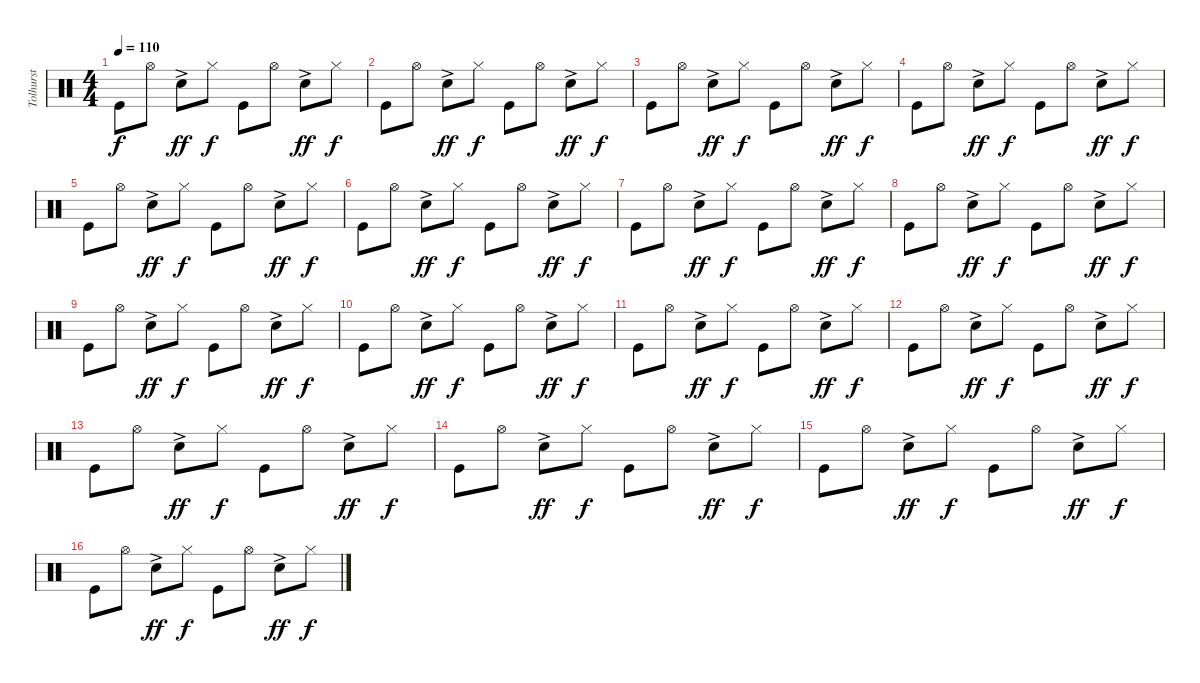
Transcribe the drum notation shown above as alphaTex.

\track ("Tolhurst" "Tolhurst") {instrument percussion}
\staff {score}
\articulation defaults
\ts (4 4)
\tempo 110
\clef neutral
\ks c "Kick (hit)".8{dy f} "Hi-Hat (open)".8 "Electric Snare (hit)"{ac}.8{dy ff} "Hi-Hat (closed)".8{dy f} "Kick (hit)".8 "Hi-Hat (open)".8 "Electric Snare (hit)"{ac}.8{dy ff} "Hi-Hat (closed)".8{dy f}
|
"Kick (hit)".8 "Hi-Hat (open)".8 "Electric Snare (hit)"{ac}.8{dy ff} "Hi-Hat (closed)".8{dy f} "Kick (hit)".8 "Hi-Hat (open)".8 "Electric Snare (hit)"{ac}.8{dy ff} "Hi-Hat (closed)".8{dy f} |
"Kick (hit)".8 "Hi-Hat (open)".8 "Electric Snare (hit)"{ac}.8{dy ff} "Hi-Hat (closed)".8{dy f} "Kick (hit)".8 "Hi-Hat (open)".8 "Electric Snare (hit)"{ac}.8{dy ff} "Hi-Hat (closed)".8{dy f} |
"Kick (hit)".8 "Hi-Hat (open)".8 "Electric Snare (hit)"{ac}.8{dy ff} "Hi-Hat (closed)".8{dy f} "Kick (hit)".8 "Hi-Hat (open)".8 "Electric Snare (hit)"{ac}.8{dy ff} "Hi-Hat (closed)".8{dy f} |
"Kick (hit)".8 "Hi-Hat (open)".8 "Electric Snare (hit)"{ac}.8{dy ff} "Hi-Hat (closed)".8{dy f} "Kick (hit)".8 "Hi-Hat (open)".8 "Electric Snare (hit)"{ac}.8{dy ff} "Hi-Hat (closed)".8{dy f} |
"Kick (hit)".8 "Hi-Hat (open)".8 "Electric Snare (hit)"{ac}.8{dy ff} "Hi-Hat (closed)".8{dy f} "Kick (hit)".8 "Hi-Hat (open)".8 "Electric Snare (hit)"{ac}.8{dy ff} "Hi-Hat (closed)".8{dy f} |
"Kick (hit)".8 "Hi-Hat (open)".8 "Electric Snare (hit)"{ac}.8{dy ff} "Hi-Hat (closed)".8{dy f} "Kick (hit)".8 "Hi-Hat (open)".8 "Electric Snare (hit)"{ac}.8{dy ff} "Hi-Hat (closed)".8{dy f} |
"Kick (hit)".8 "Hi-Hat (open)".8 "Electric Snare (hit)"{ac}.8{dy ff} "Hi-Hat (closed)".8{dy f} "Kick (hit)".8 "Hi-Hat (open)".8 "Electric Snare (hit)"{ac}.8{dy ff} "Hi-Hat (closed)".8{dy f} |
"Kick (hit)".8 "Hi-Hat (open)".8 "Electric Snare (hit)"{ac}.8{dy ff} "Hi-Hat (closed)".8{dy f} "Kick (hit)".8 "Hi-Hat (open)".8 "Electric Snare (hit)"{ac}.8{dy ff} "Hi-Hat (closed)".8{dy f} |
"Kick (hit)".8 "Hi-Hat (open)".8 "Electric Snare (hit)"{ac}.8{dy ff} "Hi-Hat (closed)".8{dy f} "Kick (hit)".8 "Hi-Hat (open)".8 "Electric Snare (hit)"{ac}.8{dy ff} "Hi-Hat (closed)".8{dy f} |
"Kick (hit)".8 "Hi-Hat (open)".8 "Electric Snare (hit)"{ac}.8{dy ff} "Hi-Hat (closed)".8{dy f} "Kick (hit)".8 "Hi-Hat (open)".8 "Electric Snare (hit)"{ac}.8{dy ff} "Hi-Hat (closed)".8{dy f} |
"Kick (hit)".8 "Hi-Hat (open)".8 "Electric Snare (hit)"{ac}.8{dy ff} "Hi-Hat (closed)".8{dy f} "Kick (hit)".8 "Hi-Hat (open)".8 "Electric Snare (hit)"{ac}.8{dy ff} "Hi-Hat (closed)".8{dy f} |
"Kick (hit)".8 "Hi-Hat (open)".8 "Electric Snare (hit)"{ac}.8{dy ff} "Hi-Hat (closed)".8{dy f} "Kick (hit)".8 "Hi-Hat (open)".8 "Electric Snare (hit)"{ac}.8{dy ff} "Hi-Hat (closed)".8{dy f} |
"Kick (hit)".8 "Hi-Hat (open)".8 "Electric Snare (hit)"{ac}.8{dy ff} "Hi-Hat (closed)".8{dy f} "Kick (hit)".8 "Hi-Hat (open)".8 "Electric Snare (hit)"{ac}.8{dy ff} "Hi-Hat (closed)".8{dy f} |
"Kick (hit)".8 "Hi-Hat (open)".8 "Electric Snare (hit)"{ac}.8{dy ff} "Hi-Hat (closed)".8{dy f} "Kick (hit)".8 "Hi-Hat (open)".8 "Electric Snare (hit)"{ac}.8{dy ff} "Hi-Hat (closed)".8{dy f} |
"Kick (hit)".8 "Hi-Hat (open)".8 "Electric Snare (hit)"{ac}.8{dy ff} "Hi-Hat (closed)".8{dy f} "Kick (hit)".8 "Hi-Hat (open)".8 "Electric Snare (hit)"{ac}.8{dy ff} "Hi-Hat (closed)".8{dy f}
